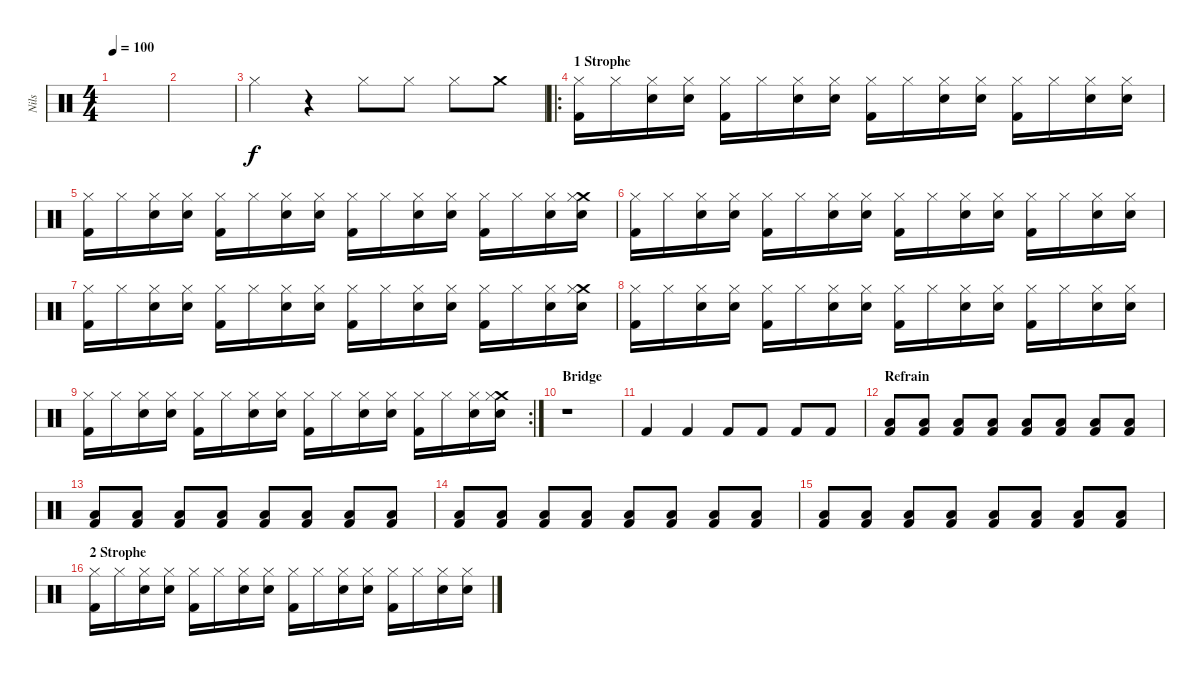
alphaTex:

\track ("Nils" "Nils") {instrument percussion}
\staff {score}
\articulation defaults
\ts (4 4)
\tempo 100
\clef neutral
\ks c
|
|
"Hi-Hat (closed)".4 r.4 "Hi-Hat (closed)".8 "Hi-Hat (closed)".8 "Hi-Hat (closed)".8 "Crash medium (hit)".8 |
\ro
\section ("" "1 Strophe")
("Kick (hit) 2" "Hi-Hat (closed)").16 "Hi-Hat (closed)".16 ("Electric Snare (hit)" "Hi-Hat (closed)").16 ("Electric Snare (hit)" "Hi-Hat (closed)").16 ("Kick (hit) 2" "Hi-Hat (closed)").16 "Hi-Hat (closed)".16 ("Electric Snare (hit)" "Hi-Hat (closed)").16 ("Electric Snare (hit)" "Hi-Hat (closed)").16 ("Kick (hit) 2" "Hi-Hat (closed)").16 "Hi-Hat (closed)".16 ("Electric Snare (hit)" "Hi-Hat (closed)").16 ("Electric Snare (hit)" "Hi-Hat (closed)").16 ("Kick (hit) 2" "Hi-Hat (closed)").16 "Hi-Hat (closed)".16 ("Electric Snare (hit)" "Hi-Hat (closed)").16 ("Electric Snare (hit)" "Hi-Hat (closed)").16 |
("Kick (hit) 2" "Hi-Hat (closed)").16 "Hi-Hat (closed)".16 ("Electric Snare (hit)" "Hi-Hat (closed)").16 ("Electric Snare (hit)" "Hi-Hat (closed)").16 ("Kick (hit) 2" "Hi-Hat (closed)").16 "Hi-Hat (closed)".16 ("Electric Snare (hit)" "Hi-Hat (closed)").16 ("Electric Snare (hit)" "Hi-Hat (closed)").16 ("Kick (hit) 2" "Hi-Hat (closed)").16 "Hi-Hat (closed)".16 ("Electric Snare (hit)" "Hi-Hat (closed)").16 ("Electric Snare (hit)" "Hi-Hat (closed)").16 ("Kick (hit) 2" "Hi-Hat (closed)").16 "Hi-Hat (closed)".16 ("Electric Snare (hit)" "Hi-Hat (closed)").16 ("Crash medium (hit)" "Electric Snare (hit)" "Hi-Hat (closed)").16 |
("Kick (hit) 2" "Hi-Hat (closed)").16 "Hi-Hat (closed)".16 ("Electric Snare (hit)" "Hi-Hat (closed)").16 ("Electric Snare (hit)" "Hi-Hat (closed)").16 ("Kick (hit) 2" "Hi-Hat (closed)").16 "Hi-Hat (closed)".16 ("Electric Snare (hit)" "Hi-Hat (closed)").16 ("Electric Snare (hit)" "Hi-Hat (closed)").16 ("Kick (hit) 2" "Hi-Hat (closed)").16 "Hi-Hat (closed)".16 ("Electric Snare (hit)" "Hi-Hat (closed)").16 ("Electric Snare (hit)" "Hi-Hat (closed)").16 ("Kick (hit) 2" "Hi-Hat (closed)").16 "Hi-Hat (closed)".16 ("Electric Snare (hit)" "Hi-Hat (closed)").16 ("Electric Snare (hit)" "Hi-Hat (closed)").16 |
("Kick (hit) 2" "Hi-Hat (closed)").16 "Hi-Hat (closed)".16 ("Electric Snare (hit)" "Hi-Hat (closed)").16 ("Electric Snare (hit)" "Hi-Hat (closed)").16 ("Kick (hit) 2" "Hi-Hat (closed)").16 "Hi-Hat (closed)".16 ("Electric Snare (hit)" "Hi-Hat (closed)").16 ("Electric Snare (hit)" "Hi-Hat (closed)").16 ("Kick (hit) 2" "Hi-Hat (closed)").16 "Hi-Hat (closed)".16 ("Electric Snare (hit)" "Hi-Hat (closed)").16 ("Electric Snare (hit)" "Hi-Hat (closed)").16 ("Kick (hit) 2" "Hi-Hat (closed)").16 "Hi-Hat (closed)".16 ("Electric Snare (hit)" "Hi-Hat (closed)").16 ("Crash medium (hit)" "Electric Snare (hit)" "Hi-Hat (closed)").16 |
("Kick (hit) 2" "Hi-Hat (closed)").16 "Hi-Hat (closed)".16 ("Electric Snare (hit)" "Hi-Hat (closed)").16 ("Electric Snare (hit)" "Hi-Hat (closed)").16 ("Kick (hit) 2" "Hi-Hat (closed)").16 "Hi-Hat (closed)".16 ("Electric Snare (hit)" "Hi-Hat (closed)").16 ("Electric Snare (hit)" "Hi-Hat (closed)").16 ("Kick (hit) 2" "Hi-Hat (closed)").16 "Hi-Hat (closed)".16 ("Electric Snare (hit)" "Hi-Hat (closed)").16 ("Electric Snare (hit)" "Hi-Hat (closed)").16 ("Kick (hit) 2" "Hi-Hat (closed)").16 "Hi-Hat (closed)".16 ("Electric Snare (hit)" "Hi-Hat (closed)").16 ("Electric Snare (hit)" "Hi-Hat (closed)").16 |
\rc 2
("Kick (hit) 2" "Hi-Hat (closed)").16 "Hi-Hat (closed)".16 ("Electric Snare (hit)" "Hi-Hat (closed)").16 ("Electric Snare (hit)" "Hi-Hat (closed)").16 ("Kick (hit) 2" "Hi-Hat (closed)").16 "Hi-Hat (closed)".16 ("Electric Snare (hit)" "Hi-Hat (closed)").16 ("Electric Snare (hit)" "Hi-Hat (closed)").16 ("Kick (hit) 2" "Hi-Hat (closed)").16 "Hi-Hat (closed)".16 ("Electric Snare (hit)" "Hi-Hat (closed)").16 ("Electric Snare (hit)" "Hi-Hat (closed)").16 ("Kick (hit) 2" "Hi-Hat (closed)").16 "Hi-Hat (closed)".16 ("Electric Snare (hit)" "Hi-Hat (closed)").16 ("Crash medium (hit)" "Electric Snare (hit)" "Hi-Hat (closed)").16 |
\section ("" "Bridge")
r.1 |
"Kick (hit) 2".4 "Kick (hit) 2".4 "Kick (hit) 2".8 "Kick (hit) 2".8 "Kick (hit) 2".8 "Kick (hit) 2".8 |
\section ("" "Refrain")
("Low Floor Tom (hit)" "Kick (hit) 2").8 ("Low Floor Tom (hit)" "Kick (hit) 2").8 ("Low Floor Tom (hit)" "Kick (hit) 2").8 ("Low Floor Tom (hit)" "Kick (hit) 2").8 ("Low Floor Tom (hit)" "Kick (hit) 2").8 ("Low Floor Tom (hit)" "Kick (hit) 2").8 ("Low Floor Tom (hit)" "Kick (hit) 2").8 ("Low Floor Tom (hit)" "Kick (hit) 2").8 |
("Low Floor Tom (hit)" "Kick (hit) 2").8 ("Low Floor Tom (hit)" "Kick (hit) 2").8 ("Low Floor Tom (hit)" "Kick (hit) 2").8 ("Low Floor Tom (hit)" "Kick (hit) 2").8 ("Low Floor Tom (hit)" "Kick (hit) 2").8 ("Low Floor Tom (hit)" "Kick (hit) 2").8 ("Low Floor Tom (hit)" "Kick (hit) 2").8 ("Low Floor Tom (hit)" "Kick (hit) 2").8 |
("Low Floor Tom (hit)" "Kick (hit) 2").8 ("Low Floor Tom (hit)" "Kick (hit) 2").8 ("Low Floor Tom (hit)" "Kick (hit) 2").8 ("Low Floor Tom (hit)" "Kick (hit) 2").8 ("Low Floor Tom (hit)" "Kick (hit) 2").8 ("Low Floor Tom (hit)" "Kick (hit) 2").8 ("Low Floor Tom (hit)" "Kick (hit) 2").8 ("Low Floor Tom (hit)" "Kick (hit) 2").8 |
("Low Floor Tom (hit)" "Kick (hit) 2").8 ("Low Floor Tom (hit)" "Kick (hit) 2").8 ("Low Floor Tom (hit)" "Kick (hit) 2").8 ("Low Floor Tom (hit)" "Kick (hit) 2").8 ("Low Floor Tom (hit)" "Kick (hit) 2").8 ("Low Floor Tom (hit)" "Kick (hit) 2").8 ("Low Floor Tom (hit)" "Kick (hit) 2").8 ("Low Floor Tom (hit)" "Kick (hit) 2").8 |
\section ("" "2 Strophe")
("Kick (hit) 2" "Hi-Hat (closed)").16 "Hi-Hat (closed)".16 ("Electric Snare (hit)" "Hi-Hat (closed)").16 ("Electric Snare (hit)" "Hi-Hat (closed)").16 ("Kick (hit) 2" "Hi-Hat (closed)").16 "Hi-Hat (closed)".16 ("Electric Snare (hit)" "Hi-Hat (closed)").16 ("Electric Snare (hit)" "Hi-Hat (closed)").16 ("Kick (hit) 2" "Hi-Hat (closed)").16 "Hi-Hat (closed)".16 ("Electric Snare (hit)" "Hi-Hat (closed)").16 ("Electric Snare (hit)" "Hi-Hat (closed)").16 ("Kick (hit) 2" "Hi-Hat (closed)").16 "Hi-Hat (closed)".16 ("Electric Snare (hit)" "Hi-Hat (closed)").16 ("Electric Snare (hit)" "Hi-Hat (closed)").16
